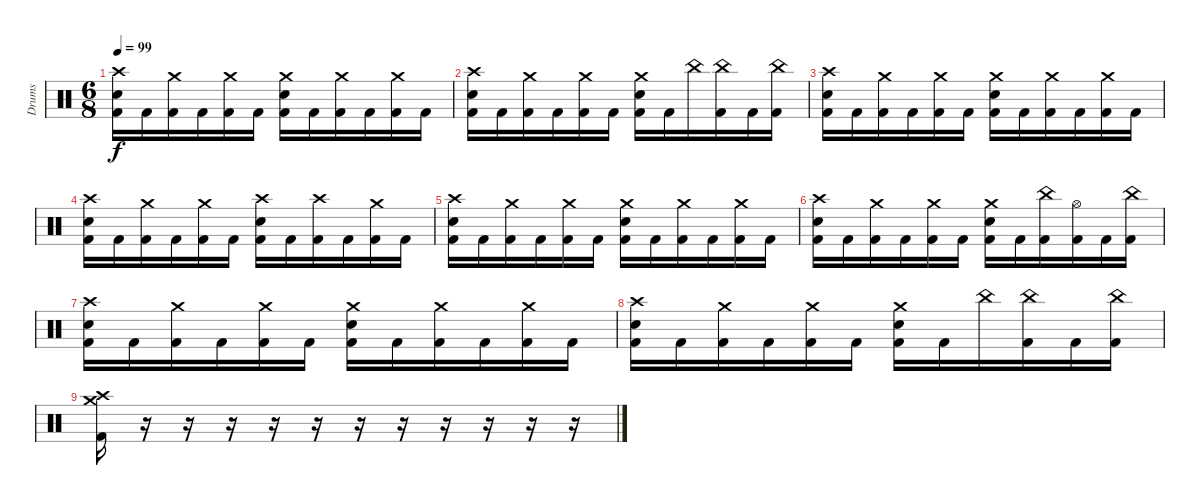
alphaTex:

\track ("Drums" "Drums") {instrument percussion}
\staff {score}
\articulation defaults
\ts (6 8)
\tempo 99
\clef neutral
\ks c
("Crash high (hit)" "Electric Snare (hit)" "Kick (hit) 2").16{dy f} "Kick (hit) 2".16 ("Crash medium (hit)" "Kick (hit) 2").16 "Kick (hit) 2".16 ("Crash medium (hit)" "Kick (hit) 2").16 "Kick (hit) 2".16 ("Crash medium (hit)" "Electric Snare (hit)" "Kick (hit) 2").16 "Kick (hit) 2".16 ("Crash medium (hit)" "Kick (hit) 2").16 "Kick (hit) 2".16 ("Crash medium (hit)" "Kick (hit) 2").16 "Kick (hit) 2".16 |
("Crash high (hit)" "Electric Snare (hit)" "Kick (hit) 2").16 "Kick (hit) 2".16 ("Crash medium (hit)" "Kick (hit) 2").16 "Kick (hit) 2".16 ("Crash medium (hit)" "Kick (hit) 2").16 "Kick (hit) 2".16 ("Crash medium (hit)" "Electric Snare (hit)" "Kick (hit) 2").16 "Kick (hit) 2".16 "China (hit)".16 ("China (hit)" "Kick (hit) 2").16 "Kick (hit) 2".16 ("China (hit)" "Kick (hit) 2").16 |
("Crash high (hit)" "Electric Snare (hit)" "Kick (hit) 2").16 "Kick (hit) 2".16 ("Crash medium (hit)" "Kick (hit) 2").16 "Kick (hit) 2".16 ("Crash medium (hit)" "Kick (hit) 2").16 "Kick (hit) 2".16 ("Crash medium (hit)" "Electric Snare (hit)" "Kick (hit) 2").16 "Kick (hit) 2".16 ("Crash medium (hit)" "Kick (hit) 2").16 "Kick (hit) 2".16 ("Crash medium (hit)" "Kick (hit) 2").16 "Kick (hit) 2".16 |
("Crash high (hit)" "Electric Snare (hit)" "Kick (hit) 2").16 "Kick (hit) 2".16 ("Crash medium (hit)" "Kick (hit) 2").16 "Kick (hit) 2".16 ("Crash medium (hit)" "Kick (hit) 2").16 "Kick (hit) 2".16 ("Crash high (hit)" "Electric Snare (hit)" "Kick (hit) 2").16 "Kick (hit) 2".16 ("Crash high (hit)" "Kick (hit) 2").16 "Kick (hit) 2".16 ("Crash medium (hit)" "Kick (hit) 2").16 "Kick (hit) 2".16 |
("Crash high (hit)" "Electric Snare (hit)" "Kick (hit) 2").16 "Kick (hit) 2".16 ("Crash medium (hit)" "Kick (hit) 2").16 "Kick (hit) 2".16 ("Crash medium (hit)" "Kick (hit) 2").16 "Kick (hit) 2".16 ("Crash medium (hit)" "Electric Snare (hit)" "Kick (hit) 2").16 "Kick (hit) 2".16 ("Crash medium (hit)" "Kick (hit) 2").16 "Kick (hit) 2".16 ("Crash medium (hit)" "Kick (hit) 2").16 "Kick (hit) 2".16 |
("Crash high (hit)" "Electric Snare (hit)" "Kick (hit) 2").16 "Kick (hit) 2".16 ("Crash medium (hit)" "Kick (hit) 2").16 "Kick (hit) 2".16 ("Crash medium (hit)" "Kick (hit) 2").16 "Kick (hit) 2".16 ("Crash medium (hit)" "Electric Snare (hit)" "Kick (hit) 2").16 "Kick (hit) 2".16 ("China (hit)" "Kick (hit) 2").16 ("Hi-Hat (open)" "Kick (hit) 2").16 "Kick (hit) 2".16 ("China (hit)" "Kick (hit) 2").16 |
("Crash high (hit)" "Electric Snare (hit)" "Kick (hit) 2").16 "Kick (hit) 2".16 ("Crash medium (hit)" "Kick (hit) 2").16 "Kick (hit) 2".16 ("Crash medium (hit)" "Kick (hit) 2").16 "Kick (hit) 2".16 ("Crash medium (hit)" "Electric Snare (hit)" "Kick (hit) 2").16 "Kick (hit) 2".16 ("Crash medium (hit)" "Kick (hit) 2").16 "Kick (hit) 2".16 ("Crash medium (hit)" "Kick (hit) 2").16 "Kick (hit) 2".16 |
("Crash high (hit)" "Electric Snare (hit)" "Kick (hit) 2").16 "Kick (hit) 2".16 ("Crash medium (hit)" "Kick (hit) 2").16 "Kick (hit) 2".16 ("Crash medium (hit)" "Kick (hit) 2").16 "Kick (hit) 2".16 ("Crash medium (hit)" "Electric Snare (hit)" "Kick (hit) 2").16 "Kick (hit) 2".16 "China (hit)".16 ("China (hit)" "Kick (hit) 2").16 "Kick (hit) 2".16 ("China (hit)" "Kick (hit) 2").16 |
("Crash high (hit)" "Crash medium (hit)" "Kick (hit) 2").16 r.16 r.16 r.16 r.16 r.16 r.16 r.16 r.16 r.16 r.16 r.16
